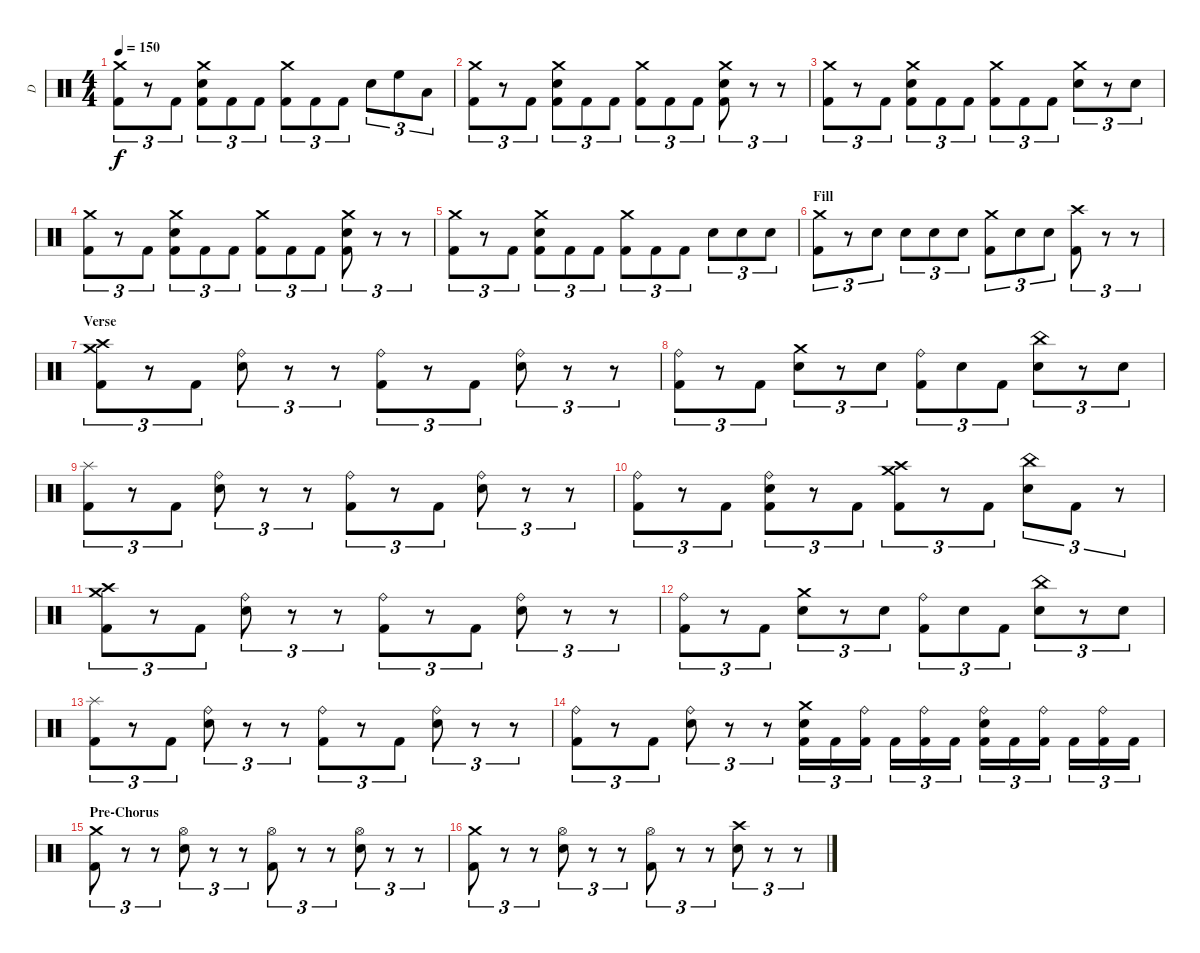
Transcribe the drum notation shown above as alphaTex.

\track ("D" "D") {instrument percussion}
\staff {score}
\articulation defaults
\ts (4 4)
\tempo 150
\clef neutral
\ks c
("Crash medium (hit)" "Kick (hit) 2").8{tu (3 2) dy f} r.8{tu (3 2)} "Kick (hit) 2".8{tu (3 2)} ("Crash medium (hit)" "Electric Snare (hit)" "Kick (hit) 2").8{tu (3 2)} "Kick (hit) 2".8{tu (3 2)} "Kick (hit) 2".8{tu (3 2)} ("Crash medium (hit)" "Kick (hit) 2").8{tu (3 2)} "Kick (hit) 2".8{tu (3 2)} "Kick (hit) 2".8{tu (3 2)} "Electric Snare (hit)".8{tu (3 2)} "High Floor Tom (hit)".8{tu (3 2)} "Low Tom (hit)".8{tu (3 2)} |
("Crash medium (hit)" "Kick (hit) 2").8{tu (3 2)} r.8{tu (3 2)} "Kick (hit) 2".8{tu (3 2)} ("Crash medium (hit)" "Electric Snare (hit)" "Kick (hit) 2").8{tu (3 2)} "Kick (hit) 2".8{tu (3 2)} "Kick (hit) 2".8{tu (3 2)} ("Crash medium (hit)" "Kick (hit) 2").8{tu (3 2)} "Kick (hit) 2".8{tu (3 2)} "Kick (hit) 2".8{tu (3 2)} ("Crash medium (hit)" "Electric Snare (hit)" "Kick (hit) 2").8{tu (3 2)} r.8{tu (3 2)} r.8{tu (3 2)} |
("Crash medium (hit)" "Kick (hit) 2").8{tu (3 2)} r.8{tu (3 2)} "Kick (hit) 2".8{tu (3 2)} ("Crash medium (hit)" "Electric Snare (hit)" "Kick (hit) 2").8{tu (3 2)} "Kick (hit) 2".8{tu (3 2)} "Kick (hit) 2".8{tu (3 2)} ("Crash medium (hit)" "Kick (hit) 2").8{tu (3 2)} "Kick (hit) 2".8{tu (3 2)} "Kick (hit) 2".8{tu (3 2)} ("Crash medium (hit)" "Electric Snare (hit)").8{tu (3 2)} r.8{tu (3 2)} "Electric Snare (hit)".8{tu (3 2)} |
("Crash medium (hit)" "Kick (hit) 2").8{tu (3 2)} r.8{tu (3 2)} "Kick (hit) 2".8{tu (3 2)} ("Crash medium (hit)" "Electric Snare (hit)" "Kick (hit) 2").8{tu (3 2)} "Kick (hit) 2".8{tu (3 2)} "Kick (hit) 2".8{tu (3 2)} ("Crash medium (hit)" "Kick (hit) 2").8{tu (3 2)} "Kick (hit) 2".8{tu (3 2)} "Kick (hit) 2".8{tu (3 2)} ("Crash medium (hit)" "Electric Snare (hit)" "Kick (hit) 2").8{tu (3 2)} r.8{tu (3 2)} r.8{tu (3 2)} |
("Crash medium (hit)" "Kick (hit) 2").8{tu (3 2)} r.8{tu (3 2)} "Kick (hit) 2".8{tu (3 2)} ("Crash medium (hit)" "Electric Snare (hit)" "Kick (hit) 2").8{tu (3 2)} "Kick (hit) 2".8{tu (3 2)} "Kick (hit) 2".8{tu (3 2)} ("Crash medium (hit)" "Kick (hit) 2").8{tu (3 2)} "Kick (hit) 2".8{tu (3 2)} "Kick (hit) 2".8{tu (3 2)} "Electric Snare (hit)".8{tu (3 2)} "Electric Snare (hit)".8{tu (3 2)} "Electric Snare (hit)".8{tu (3 2)} |
\section ("" "Fill")
("Crash medium (hit)" "Kick (hit) 2").8{tu (3 2)} r.8{tu (3 2)} "Electric Snare (hit)".8{tu (3 2)} "Electric Snare (hit)".8{tu (3 2)} "Electric Snare (hit)".8{tu (3 2)} "Electric Snare (hit)".8{tu (3 2)} ("Crash medium (hit)" "Kick (hit) 2").8{tu (3 2)} "Electric Snare (hit)".8{tu (3 2)} "Electric Snare (hit)".8{tu (3 2)} ("Crash high (hit)" "Kick (hit) 2").8{tu (3 2)} r.8{tu (3 2)} r.8{tu (3 2)} |
\section ("" "Verse")
("Crash high (hit)" "Crash medium (hit)" "Kick (hit) 2").8{tu (3 2)} r.8{tu (3 2)} "Kick (hit) 2".8{tu (3 2)} ("Ride (bell)" "Electric Snare (hit)").8{tu (3 2)} r.8{tu (3 2)} r.8{tu (3 2)} ("Ride (bell)" "Kick (hit) 2").8{tu (3 2)} r.8{tu (3 2)} "Kick (hit) 2".8{tu (3 2)} ("Ride (bell)" "Electric Snare (hit)").8{tu (3 2)} r.8{tu (3 2)} r.8{tu (3 2)} |
("Ride (bell)" "Kick (hit) 2").8{tu (3 2)} r.8{tu (3 2)} "Kick (hit) 2".8{tu (3 2)} ("Crash medium (hit)" "Electric Snare (hit)").8{tu (3 2)} r.8{tu (3 2)} "Electric Snare (hit)".8{tu (3 2)} ("Ride (bell)" "Kick (hit) 2").8{tu (3 2)} "Electric Snare (hit)".8{tu (3 2)} "Kick (hit) 2".8{tu (3 2)} ("China (hit)" "Electric Snare (hit)").8{tu (3 2)} r.8{tu (3 2)} "Electric Snare (hit)".8{tu (3 2)} |
("Splash (hit)" "Kick (hit) 2").8{tu (3 2)} r.8{tu (3 2)} "Kick (hit) 2".8{tu (3 2)} ("Ride (bell)" "Electric Snare (hit)").8{tu (3 2)} r.8{tu (3 2)} r.8{tu (3 2)} ("Ride (bell)" "Kick (hit) 2").8{tu (3 2)} r.8{tu (3 2)} "Kick (hit) 2".8{tu (3 2)} ("Ride (bell)" "Electric Snare (hit)").8{tu (3 2)} r.8{tu (3 2)} r.8{tu (3 2)} |
("Ride (bell)" "Kick (hit) 2").8{tu (3 2)} r.8{tu (3 2)} "Kick (hit) 2".8{tu (3 2)} ("Ride (bell)" "Electric Snare (hit)" "Kick (hit) 2").8{tu (3 2)} r.8{tu (3 2)} "Kick (hit) 2".8{tu (3 2)} ("Crash medium (hit)" "Crash high (hit)" "Kick (hit) 2").8{tu (3 2)} r.8{tu (3 2)} "Kick (hit) 2".8{tu (3 2)} ("China (hit)" "Electric Snare (hit)").8{tu (3 2)} "Kick (hit) 2".8{tu (3 2)} r.8{tu (3 2)} |
("Crash high (hit)" "Crash medium (hit)" "Kick (hit) 2").8{tu (3 2)} r.8{tu (3 2)} "Kick (hit) 2".8{tu (3 2)} ("Ride (bell)" "Electric Snare (hit)").8{tu (3 2)} r.8{tu (3 2)} r.8{tu (3 2)} ("Ride (bell)" "Kick (hit) 2").8{tu (3 2)} r.8{tu (3 2)} "Kick (hit) 2".8{tu (3 2)} ("Ride (bell)" "Electric Snare (hit)").8{tu (3 2)} r.8{tu (3 2)} r.8{tu (3 2)} |
("Ride (bell)" "Kick (hit) 2").8{tu (3 2)} r.8{tu (3 2)} "Kick (hit) 2".8{tu (3 2)} ("Crash medium (hit)" "Electric Snare (hit)").8{tu (3 2)} r.8{tu (3 2)} "Electric Snare (hit)".8{tu (3 2)} ("Ride (bell)" "Kick (hit) 2").8{tu (3 2)} "Electric Snare (hit)".8{tu (3 2)} "Kick (hit) 2".8{tu (3 2)} ("China (hit)" "Electric Snare (hit)").8{tu (3 2)} r.8{tu (3 2)} "Electric Snare (hit)".8{tu (3 2)} |
("Splash (hit)" "Kick (hit) 2").8{tu (3 2)} r.8{tu (3 2)} "Kick (hit) 2".8{tu (3 2)} ("Ride (bell)" "Electric Snare (hit)").8{tu (3 2)} r.8{tu (3 2)} r.8{tu (3 2)} ("Ride (bell)" "Kick (hit) 2").8{tu (3 2)} r.8{tu (3 2)} "Kick (hit) 2".8{tu (3 2)} ("Ride (bell)" "Electric Snare (hit)").8{tu (3 2)} r.8{tu (3 2)} r.8{tu (3 2)} |
("Ride (bell)" "Kick (hit) 2").8{tu (3 2)} r.8{tu (3 2)} "Kick (hit) 2".8{tu (3 2)} ("Ride (bell)" "Electric Snare (hit)").8{tu (3 2)} r.8{tu (3 2)} r.8{tu (3 2)} ("Crash medium (hit)" "Electric Snare (hit)" "Kick (hit) 2").16{tu (3 2)} "Kick (hit) 2".16{tu (3 2)} ("Ride (bell)" "Kick (hit) 2").16{tu (3 2)} "Kick (hit) 2".16{tu (3 2)} ("Ride (bell)" "Kick (hit) 2").16{tu (3 2)} "Kick (hit) 2".16{tu (3 2)} ("Ride (bell)" "Electric Snare (hit)" "Kick (hit) 2").16{tu (3 2)} "Kick (hit) 2".16{tu (3 2)} ("Ride (bell)" "Kick (hit) 2").16{tu (3 2)} "Kick (hit) 2".16{tu (3 2)} ("Ride (bell)" "Kick (hit) 2").16{tu (3 2)} "Kick (hit) 2".16{tu (3 2)} |
\section ("" "Pre-Chorus")
("Crash medium (hit)" "Kick (hit) 2").8{tu (3 2)} r.8{tu (3 2)} r.8{tu (3 2)} ("Hi-Hat (open)" "Electric Snare (hit)").8{tu (3 2)} r.8{tu (3 2)} r.8{tu (3 2)} ("Hi-Hat (open)" "Kick (hit) 2").8{tu (3 2)} r.8{tu (3 2)} r.8{tu (3 2)} ("Hi-Hat (open)" "Electric Snare (hit)").8{tu (3 2)} r.8{tu (3 2)} r.8{tu (3 2)} |
("Crash medium (hit)" "Kick (hit) 2").8{tu (3 2)} r.8{tu (3 2)} r.8{tu (3 2)} ("Hi-Hat (open)" "Electric Snare (hit)").8{tu (3 2)} r.8{tu (3 2)} r.8{tu (3 2)} ("Hi-Hat (open)" "Kick (hit) 2").8{tu (3 2)} r.8{tu (3 2)} r.8{tu (3 2)} ("Crash high (hit)" "Electric Snare (hit)").8{tu (3 2)} r.8{tu (3 2)} r.8{tu (3 2)}
